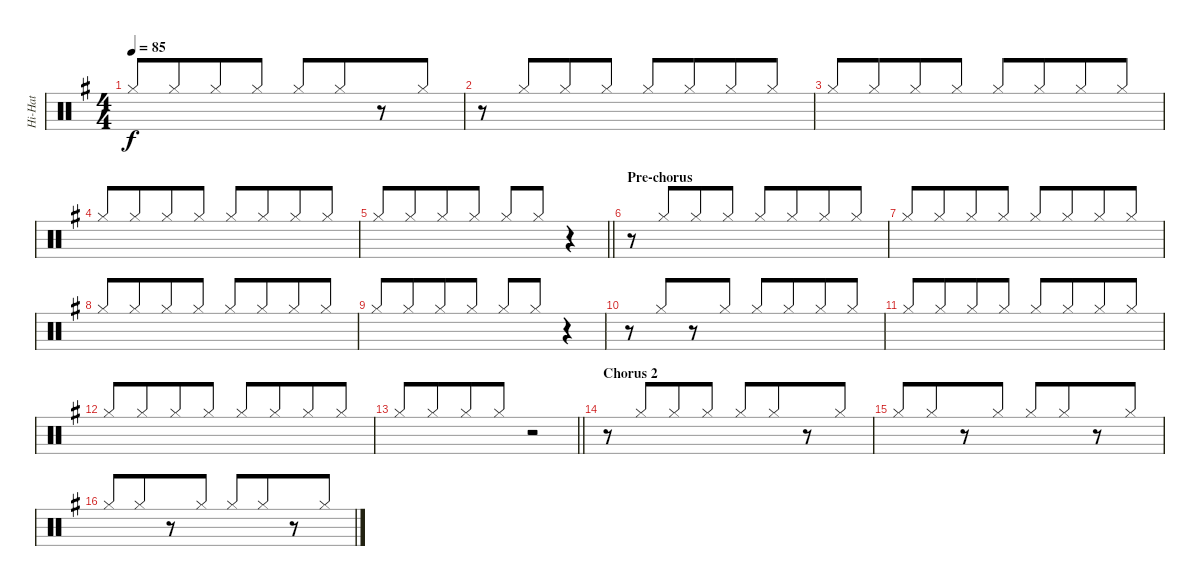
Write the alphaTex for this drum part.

\track ("Hi-Hat" "Hi-Hat") {instrument percussion}
\staff {score}
\articulation defaults
\ts (4 4)
\tempo 85
\clef neutral
\ks g "Hi-Hat (closed)".8{dy f beam Up} "Hi-Hat (closed)".8{beam Up beam merge} "Hi-Hat (closed)".8{beam Up} "Hi-Hat (closed)".8{beam Up} "Hi-Hat (closed)".8{beam Up} "Hi-Hat (closed)".8{beam Up beam merge}
r.8 "Hi-Hat (closed)".8{beam Up} |
r.8 "Hi-Hat (closed)".8{beam Up beam merge} "Hi-Hat (closed)".8{beam Up} "Hi-Hat (closed)".8{beam Up} "Hi-Hat (closed)".8{beam Up} "Hi-Hat (closed)".8{beam Up beam merge} "Hi-Hat (closed)".8{beam Up} "Hi-Hat (closed)".8{beam Up} |
"Hi-Hat (closed)".8{beam Up} "Hi-Hat (closed)".8{beam Up beam merge} "Hi-Hat (closed)".8{beam Up} "Hi-Hat (closed)".8{beam Up} "Hi-Hat (closed)".8{beam Up} "Hi-Hat (closed)".8{beam Up beam merge} "Hi-Hat (closed)".8{beam Up} "Hi-Hat (closed)".8{beam Up} |
"Hi-Hat (closed)".8{beam Up} "Hi-Hat (closed)".8{beam Up beam merge} "Hi-Hat (closed)".8{beam Up} "Hi-Hat (closed)".8{beam Up} "Hi-Hat (closed)".8{beam Up} "Hi-Hat (closed)".8{beam Up beam merge} "Hi-Hat (closed)".8{beam Up} "Hi-Hat (closed)".8{beam Up} |
\barLineRight lightlight "Hi-Hat (closed)".8{beam Up} "Hi-Hat (closed)".8{beam Up beam merge} "Hi-Hat (closed)".8{beam Up} "Hi-Hat (closed)".8{beam Up} "Hi-Hat (closed)".8{beam Up} "Hi-Hat (closed)".8{beam Up}
r.4 |
\section ("" "Pre-chorus")
r.8 "Hi-Hat (closed)".8{beam Up beam merge} "Hi-Hat (closed)".8{beam Up} "Hi-Hat (closed)".8{beam Up} "Hi-Hat (closed)".8{beam Up} "Hi-Hat (closed)".8{beam Up beam merge} "Hi-Hat (closed)".8{beam Up} "Hi-Hat (closed)".8{beam Up} |
"Hi-Hat (closed)".8{beam Up} "Hi-Hat (closed)".8{beam Up beam merge} "Hi-Hat (closed)".8{beam Up} "Hi-Hat (closed)".8{beam Up} "Hi-Hat (closed)".8{beam Up} "Hi-Hat (closed)".8{beam Up beam merge} "Hi-Hat (closed)".8{beam Up} "Hi-Hat (closed)".8{beam Up} |
"Hi-Hat (closed)".8{beam Up} "Hi-Hat (closed)".8{beam Up beam merge} "Hi-Hat (closed)".8{beam Up} "Hi-Hat (closed)".8{beam Up} "Hi-Hat (closed)".8{beam Up} "Hi-Hat (closed)".8{beam Up beam merge} "Hi-Hat (closed)".8{beam Up} "Hi-Hat (closed)".8{beam Up} |
"Hi-Hat (closed)".8{beam Up} "Hi-Hat (closed)".8{beam Up beam merge} "Hi-Hat (closed)".8{beam Up} "Hi-Hat (closed)".8{beam Up} "Hi-Hat (closed)".8{beam Up} "Hi-Hat (closed)".8{beam Up} r.4 |
r.8 "Hi-Hat (closed)".8{beam Up beam merge} r.8 "Hi-Hat (closed)".8{beam Up} "Hi-Hat (closed)".8{beam Up} "Hi-Hat (closed)".8{beam Up beam merge} "Hi-Hat (closed)".8{beam Up} "Hi-Hat (closed)".8{beam Up} |
"Hi-Hat (closed)".8{beam Up} "Hi-Hat (closed)".8{beam Up beam merge} "Hi-Hat (closed)".8{beam Up} "Hi-Hat (closed)".8{beam Up} "Hi-Hat (closed)".8{beam Up} "Hi-Hat (closed)".8{beam Up beam merge} "Hi-Hat (closed)".8{beam Up} "Hi-Hat (closed)".8{beam Up} |
"Hi-Hat (closed)".8{beam Up} "Hi-Hat (closed)".8{beam Up beam merge} "Hi-Hat (closed)".8{beam Up} "Hi-Hat (closed)".8{beam Up} "Hi-Hat (closed)".8{beam Up} "Hi-Hat (closed)".8{beam Up beam merge} "Hi-Hat (closed)".8{beam Up} "Hi-Hat (closed)".8{beam Up} |
\barLineRight lightlight "Hi-Hat (closed)".8{beam Up} "Hi-Hat (closed)".8{beam Up beam merge} "Hi-Hat (closed)".8{beam Up} "Hi-Hat (closed)".8{beam Up}
r.2 |
\section ("" "Chorus 2")
r.8 "Hi-Hat (closed)".8{beam Up beam merge} "Hi-Hat (closed)".8{beam Up} "Hi-Hat (closed)".8{beam Up} "Hi-Hat (closed)".8{beam Up} "Hi-Hat (closed)".8{beam Up beam merge} r.8 "Hi-Hat (closed)".8{beam Up} |
"Hi-Hat (closed)".8{beam Up} "Hi-Hat (closed)".8{beam Up beam merge} r.8 "Hi-Hat (closed)".8{beam Up} "Hi-Hat (closed)".8{beam Up} "Hi-Hat (closed)".8{beam Up beam merge} r.8 "Hi-Hat (closed)".8{beam Up} |
"Hi-Hat (closed)".8{beam Up} "Hi-Hat (closed)".8{beam Up beam merge} r.8 "Hi-Hat (closed)".8{beam Up} "Hi-Hat (closed)".8{beam Up} "Hi-Hat (closed)".8{beam Up beam merge} r.8 "Hi-Hat (closed)".8{beam Up}
